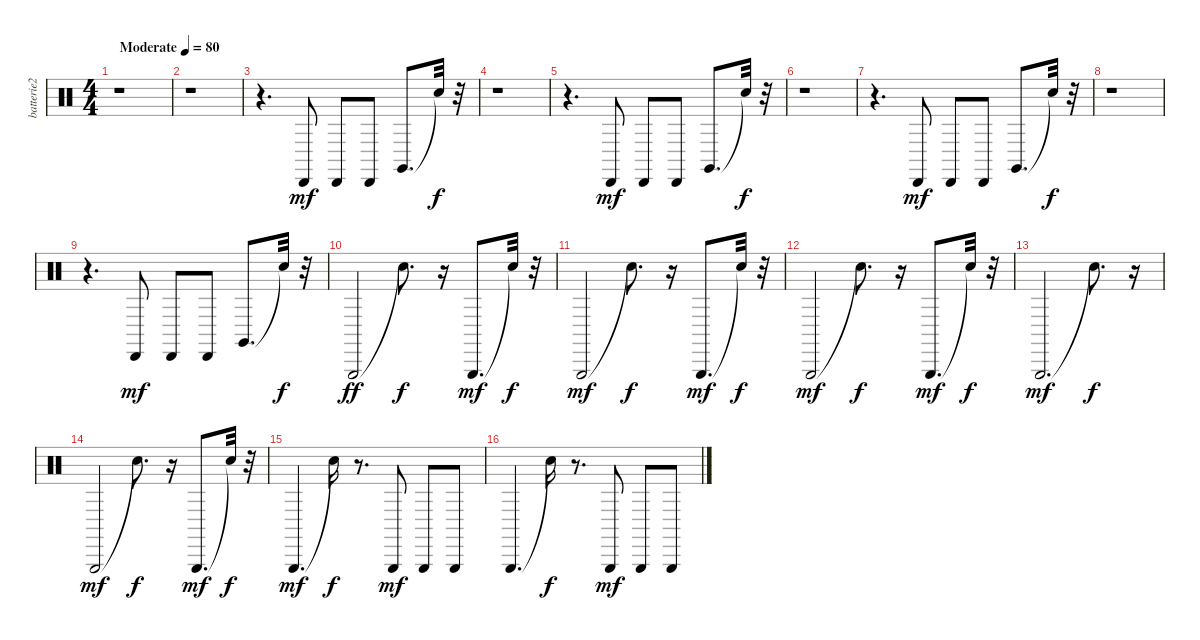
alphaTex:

\track ("batterie2" "batterie2") {instrument percussion}
\staff {score}
\articulation defaults
\ts (4 4)
\tempo (80 "Moderate")
\clef neutral
\ks c
r.1{dy mf} |
r.1 |
r.4{d} "Cabasa (hit)".8 "Cabasa (hit)".8 "Cabasa (hit)".8 "Claves (hit)".8{d} "Snare (hit)"{t}.32{dy f} r.32 |
r.1 |
r.4{d} "Cabasa (hit)".8{dy mf} "Cabasa (hit)".8 "Cabasa (hit)".8 "Claves (hit)".8{d} "Snare (hit)"{t}.32{dy f} r.32 |
r.1 |
r.4{d} "Cabasa (hit)".8{dy mf} "Cabasa (hit)".8 "Cabasa (hit)".8 "Claves (hit)".8{d} "Snare (hit)"{t}.32{dy f} r.32 |
r.1 |
r.4{d} "Cabasa (hit)".8{dy mf} "Cabasa (hit)".8 "Cabasa (hit)".8 "Claves (hit)".8{d} "Snare (hit)"{t}.32{dy f} r.32 |
"Triangle (hit)".2{dy ff} "Snare (hit)"{t}.8{d dy f} r.16 "Triangle (hit)".8{d dy mf} "Snare (hit)"{t}.32{dy f} r.32 |
"Triangle (hit)".2{dy mf} "Snare (hit)"{t}.8{d dy f} r.16 "Triangle (hit)".8{d dy mf} "Snare (hit)"{t}.32{dy f} r.32 |
"Triangle (hit)".2{dy mf} "Snare (hit)"{t}.8{d dy f} r.16 "Triangle (hit)".8{d dy mf} "Snare (hit)"{t}.32{dy f} r.32 |
"Triangle (hit)".2{d dy mf} "Snare (hit)"{t}.8{d dy f} r.16 |
"Triangle (hit)".2{dy mf} "Snare (hit)"{t}.8{d dy f} r.16 "Triangle (hit)".8{d dy mf} "Snare (hit)"{t}.32{dy f} r.32 |
"Triangle (hit)".4{d dy mf} "Snare (hit)"{t}.16{dy f} r.8{d} "Triangle (hit)".8{dy mf} "Triangle (hit)".8 "Triangle (hit)".8 |
"Triangle (hit)".4{d} "Snare (hit)"{t}.16{dy f} r.8{d} "Triangle (hit)".8{dy mf} "Triangle (hit)".8 "Triangle (hit)".8
